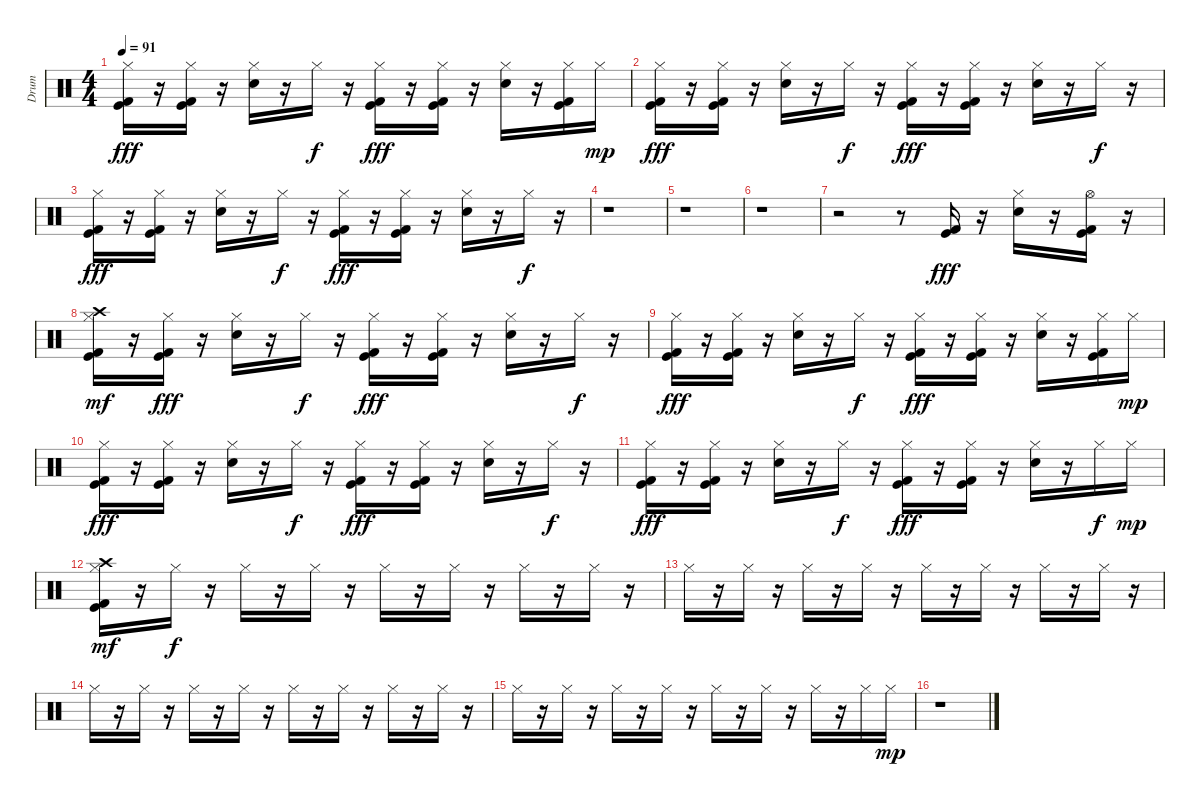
\track ("Drum" "Drum") {instrument percussion}
\staff {score}
\articulation defaults
\ts (4 4)
\tempo 91
\clef neutral
\ks c
("Hi-Hat (closed)" "Kick (hit)" "Kick (hit) 2").16{dy fff} r.16 ("Hi-Hat (closed)" "Kick (hit)" "Kick (hit) 2").16 r.16 ("Hi-Hat (closed)" "Electric Snare (hit)").16 r.16 "Hi-Hat (closed)".16{dy f} r.16 ("Hi-Hat (closed)" "Kick (hit)" "Kick (hit) 2").16{dy fff} r.16 ("Hi-Hat (closed)" "Kick (hit)" "Kick (hit) 2").16 r.16 ("Hi-Hat (closed)" "Electric Snare (hit)").16 r.16 ("Hi-Hat (closed)" "Kick (hit)" "Kick (hit) 2").16 "Hi-Hat (closed)".16{dy mp} |
("Hi-Hat (closed)" "Kick (hit)" "Kick (hit) 2").16{dy fff} r.16 ("Hi-Hat (closed)" "Kick (hit)" "Kick (hit) 2").16 r.16 ("Hi-Hat (closed)" "Electric Snare (hit)").16 r.16 "Hi-Hat (closed)".16{dy f} r.16 ("Hi-Hat (closed)" "Kick (hit)" "Kick (hit) 2").16{dy fff} r.16 ("Hi-Hat (closed)" "Kick (hit)" "Kick (hit) 2").16 r.16 ("Hi-Hat (closed)" "Electric Snare (hit)").16 r.16 "Hi-Hat (closed)".16{dy f} r.16 |
("Hi-Hat (closed)" "Kick (hit)" "Kick (hit) 2").16{dy fff} r.16 ("Hi-Hat (closed)" "Kick (hit)" "Kick (hit) 2").16 r.16 ("Hi-Hat (closed)" "Electric Snare (hit)").16 r.16 "Hi-Hat (closed)".16{dy f} r.16 ("Hi-Hat (closed)" "Kick (hit)" "Kick (hit) 2").16{dy fff} r.16 ("Hi-Hat (closed)" "Kick (hit)" "Kick (hit) 2").16 r.16 ("Hi-Hat (closed)" "Electric Snare (hit)").16 r.16 "Hi-Hat (closed)".16{dy f} r.16 |
r.1 |
r.1 |
r.1 |
r.2 r.8 ("Kick (hit)" "Kick (hit) 2").16{dy fff} r.16 ("Electric Snare (hit)" "Hi-Hat (closed)").16 r.16 ("Kick (hit)" "Kick (hit) 2" "Hi-Hat (open)").16 r.16 |
("Hi-Hat (closed)" "Kick (hit)" "Kick (hit) 2" "Crash high (hit)").16{dy mf} r.16 ("Hi-Hat (closed)" "Kick (hit)" "Kick (hit) 2").16{dy fff} r.16 ("Hi-Hat (closed)" "Electric Snare (hit)").16 r.16 "Hi-Hat (closed)".16{dy f} r.16 ("Hi-Hat (closed)" "Kick (hit)" "Kick (hit) 2").16{dy fff} r.16 ("Hi-Hat (closed)" "Kick (hit)" "Kick (hit) 2").16 r.16 ("Hi-Hat (closed)" "Electric Snare (hit)").16 r.16 "Hi-Hat (closed)".16{dy f} r.16 |
("Hi-Hat (closed)" "Kick (hit)" "Kick (hit) 2").16{dy fff} r.16 ("Hi-Hat (closed)" "Kick (hit)" "Kick (hit) 2").16 r.16 ("Hi-Hat (closed)" "Electric Snare (hit)").16 r.16 "Hi-Hat (closed)".16{dy f} r.16 ("Hi-Hat (closed)" "Kick (hit)" "Kick (hit) 2").16{dy fff} r.16 ("Hi-Hat (closed)" "Kick (hit)" "Kick (hit) 2").16 r.16 ("Hi-Hat (closed)" "Electric Snare (hit)").16 r.16 ("Hi-Hat (closed)" "Kick (hit)" "Kick (hit) 2").16 "Hi-Hat (closed)".16{dy mp} |
("Hi-Hat (closed)" "Kick (hit)" "Kick (hit) 2").16{dy fff} r.16 ("Hi-Hat (closed)" "Kick (hit)" "Kick (hit) 2").16 r.16 ("Hi-Hat (closed)" "Electric Snare (hit)").16 r.16 "Hi-Hat (closed)".16{dy f} r.16 ("Hi-Hat (closed)" "Kick (hit)" "Kick (hit) 2").16{dy fff} r.16 ("Hi-Hat (closed)" "Kick (hit)" "Kick (hit) 2").16 r.16 ("Hi-Hat (closed)" "Electric Snare (hit)").16 r.16 "Hi-Hat (closed)".16{dy f} r.16 |
("Hi-Hat (closed)" "Kick (hit)" "Kick (hit) 2").16{dy fff} r.16 ("Hi-Hat (closed)" "Kick (hit)" "Kick (hit) 2").16 r.16 ("Hi-Hat (closed)" "Electric Snare (hit)").16 r.16 "Hi-Hat (closed)".16{dy f} r.16 ("Hi-Hat (closed)" "Kick (hit)" "Kick (hit) 2").16{dy fff} r.16 ("Hi-Hat (closed)" "Kick (hit)" "Kick (hit) 2").16 r.16 ("Hi-Hat (closed)" "Electric Snare (hit)").16 r.16 "Hi-Hat (closed)".16{dy f} "Hi-Hat (closed)".16{dy mp} |
("Kick (hit)" "Kick (hit) 2" "Crash high (hit)" "Hi-Hat (closed)").16{dy mf} r.16 "Hi-Hat (closed)".16{dy f} r.16 "Hi-Hat (closed)".16 r.16 "Hi-Hat (closed)".16 r.16 "Hi-Hat (closed)".16 r.16 "Hi-Hat (closed)".16 r.16 "Hi-Hat (closed)".16 r.16 "Hi-Hat (closed)".16 r.16 |
"Hi-Hat (closed)".16 r.16 "Hi-Hat (closed)".16 r.16 "Hi-Hat (closed)".16 r.16 "Hi-Hat (closed)".16 r.16 "Hi-Hat (closed)".16 r.16 "Hi-Hat (closed)".16 r.16 "Hi-Hat (closed)".16 r.16 "Hi-Hat (closed)".16 r.16 |
"Hi-Hat (closed)".16 r.16 "Hi-Hat (closed)".16 r.16 "Hi-Hat (closed)".16 r.16 "Hi-Hat (closed)".16 r.16 "Hi-Hat (closed)".16 r.16 "Hi-Hat (closed)".16 r.16 "Hi-Hat (closed)".16 r.16 "Hi-Hat (closed)".16 r.16 |
"Hi-Hat (closed)".16 r.16 "Hi-Hat (closed)".16 r.16 "Hi-Hat (closed)".16 r.16 "Hi-Hat (closed)".16 r.16 "Hi-Hat (closed)".16 r.16 "Hi-Hat (closed)".16 r.16 "Hi-Hat (closed)".16 r.16 "Hi-Hat (closed)".16 "Hi-Hat (closed)".16{dy mp} |
r.1
